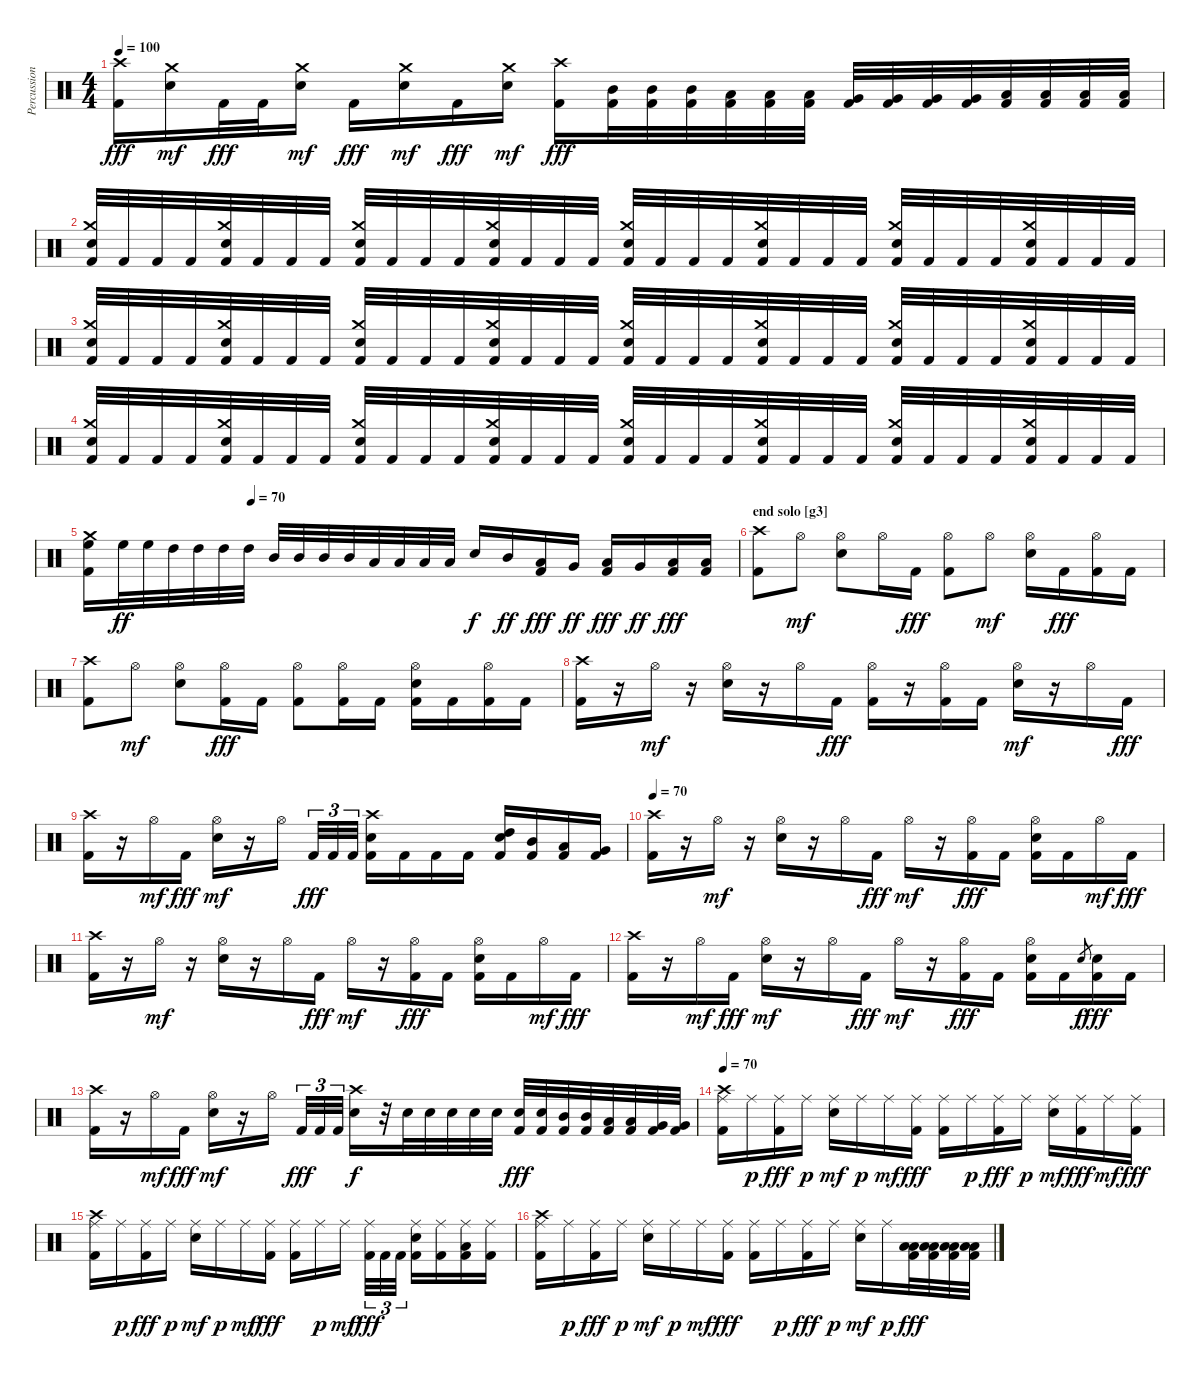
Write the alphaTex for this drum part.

\track ("Percussion" "Percussion") {instrument percussion}
\staff {score}
\articulation defaults
\ts (4 4)
\tempo 100
\clef neutral
\ks c
("Crash high (hit)" "Kick (hit) 2").16{dy fff} ("Crash medium (hit)" "Snare (hit) 2").16{dy mf} "Kick (hit) 2".32{dy fff} "Kick (hit) 2".32 ("Crash medium (hit)" "Snare (hit) 2").16{dy mf} "Kick (hit) 2".16{dy fff} ("Crash medium (hit)" "Snare (hit) 2").16{dy mf} "Kick (hit) 2".16{dy fff} ("Crash medium (hit)" "Snare (hit) 2").16{dy mf} ("Crash high (hit)" "Kick (hit) 2").16{dy fff} ("Mid Tom (hit)" "Kick (hit) 2").32 ("Mid Tom (hit)" "Kick (hit) 2").32 ("Mid Tom (hit)" "Kick (hit) 2").32 ("Low Tom (hit)" "Kick (hit) 2").32 ("Low Tom (hit)" "Kick (hit) 2").32 ("Low Tom (hit)" "Kick (hit) 2").32 ("Very Low Tom (hit)" "Kick (hit) 2").32 ("Very Low Tom (hit)" "Kick (hit) 2").32 ("Very Low Tom (hit)" "Kick (hit) 2").32 ("Very Low Tom (hit)" "Kick (hit) 2").32 ("Low Floor Tom (hit)" "Kick (hit) 2").32 ("Low Floor Tom (hit)" "Kick (hit) 2").32 ("Low Floor Tom (hit)" "Kick (hit) 2").32 ("Low Floor Tom (hit)" "Kick (hit) 2").32 |
("Crash medium (hit)" "Snare (hit) 2" "Kick (hit) 2").32 "Kick (hit) 2".32 "Kick (hit) 2".32 "Kick (hit) 2".32 ("Crash medium (hit)" "Snare (hit) 2" "Kick (hit) 2").32 "Kick (hit) 2".32 "Kick (hit) 2".32 "Kick (hit) 2".32 ("Crash medium (hit)" "Snare (hit) 2" "Kick (hit) 2").32 "Kick (hit) 2".32 "Kick (hit) 2".32 "Kick (hit) 2".32 ("Crash medium (hit)" "Snare (hit) 2" "Kick (hit) 2").32 "Kick (hit) 2".32 "Kick (hit) 2".32 "Kick (hit) 2".32 ("Crash medium (hit)" "Snare (hit) 2" "Kick (hit) 2").32 "Kick (hit) 2".32 "Kick (hit) 2".32 "Kick (hit) 2".32 ("Crash medium (hit)" "Snare (hit) 2" "Kick (hit) 2").32 "Kick (hit) 2".32 "Kick (hit) 2".32 "Kick (hit) 2".32 ("Crash medium (hit)" "Snare (hit) 2" "Kick (hit) 2").32 "Kick (hit) 2".32 "Kick (hit) 2".32 "Kick (hit) 2".32 ("Crash medium (hit)" "Snare (hit) 2" "Kick (hit) 2").32 "Kick (hit) 2".32 "Kick (hit) 2".32 "Kick (hit) 2".32 |
("Crash medium (hit)" "Snare (hit) 2" "Kick (hit) 2").32 "Kick (hit) 2".32 "Kick (hit) 2".32 "Kick (hit) 2".32 ("Crash medium (hit)" "Snare (hit) 2" "Kick (hit) 2").32 "Kick (hit) 2".32 "Kick (hit) 2".32 "Kick (hit) 2".32 ("Crash medium (hit)" "Snare (hit) 2" "Kick (hit) 2").32 "Kick (hit) 2".32 "Kick (hit) 2".32 "Kick (hit) 2".32 ("Crash medium (hit)" "Snare (hit) 2" "Kick (hit) 2").32 "Kick (hit) 2".32 "Kick (hit) 2".32 "Kick (hit) 2".32 ("Crash medium (hit)" "Snare (hit) 2" "Kick (hit) 2").32 "Kick (hit) 2".32 "Kick (hit) 2".32 "Kick (hit) 2".32 ("Crash medium (hit)" "Snare (hit) 2" "Kick (hit) 2").32 "Kick (hit) 2".32 "Kick (hit) 2".32 "Kick (hit) 2".32 ("Crash medium (hit)" "Snare (hit) 2" "Kick (hit) 2").32 "Kick (hit) 2".32 "Kick (hit) 2".32 "Kick (hit) 2".32 ("Crash medium (hit)" "Snare (hit) 2" "Kick (hit) 2").32 "Kick (hit) 2".32 "Kick (hit) 2".32 "Kick (hit) 2".32 |
("Crash medium (hit)" "Snare (hit) 2" "Kick (hit) 2").32 "Kick (hit) 2".32 "Kick (hit) 2".32 "Kick (hit) 2".32 ("Crash medium (hit)" "Snare (hit) 2" "Kick (hit) 2").32 "Kick (hit) 2".32 "Kick (hit) 2".32 "Kick (hit) 2".32 ("Crash medium (hit)" "Snare (hit) 2" "Kick (hit) 2").32 "Kick (hit) 2".32 "Kick (hit) 2".32 "Kick (hit) 2".32 ("Crash medium (hit)" "Snare (hit) 2" "Kick (hit) 2").32 "Kick (hit) 2".32 "Kick (hit) 2".32 "Kick (hit) 2".32 ("Crash medium (hit)" "Snare (hit) 2" "Kick (hit) 2").32 "Kick (hit) 2".32 "Kick (hit) 2".32 "Kick (hit) 2".32 ("Crash medium (hit)" "Snare (hit) 2" "Kick (hit) 2").32 "Kick (hit) 2".32 "Kick (hit) 2".32 "Kick (hit) 2".32 ("Crash medium (hit)" "Snare (hit) 2" "Kick (hit) 2").32 "Kick (hit) 2".32 "Kick (hit) 2".32 "Kick (hit) 2".32 ("Crash medium (hit)" "Snare (hit) 2" "Kick (hit) 2").32 "Kick (hit) 2".32 "Kick (hit) 2".32 "Kick (hit) 2".32 |
\tempo (70 0.25)
("Crash medium (hit)" "High Floor Tom (hit)" "Kick (hit) 2").16 "High Floor Tom (hit)".32{dy ff} "High Floor Tom (hit)".32 "High Tom (hit)".32 "High Tom (hit)".32 "High Tom (hit)".32 "High Tom (hit)".32 "Mid Tom (hit)".32 "Mid Tom (hit)".32 "Mid Tom (hit)".32 "Mid Tom (hit)".32 "Low Tom (hit)".32 "Low Tom (hit)".32 "Low Tom (hit)".32 "Low Tom (hit)".32 "Snare (hit) 2".16{dy f} "Mid Tom (hit)".16{dy ff} ("Low Tom (hit)" "Kick (hit) 2").16{dy fff} "Very Low Tom (hit)".16{dy ff} ("Low Tom (hit)" "Kick (hit) 2").16{dy fff} "Very Low Tom (hit)".16{dy ff} ("Low Floor Tom (hit)" "Kick (hit) 2").16{dy fff} ("Low Floor Tom (hit)" "Kick (hit) 2").16 |
\section ("" "end solo [g3]")
("Crash high (hit)" "Kick (hit) 2").8 "Hi-Hat (open)".8{dy mf} ("Hi-Hat (open)" "Snare (hit) 2").8 "Hi-Hat (open)".16 "Kick (hit) 2".16{dy fff} ("Hi-Hat (open)" "Kick (hit) 2").8 "Hi-Hat (open)".8{dy mf} ("Hi-Hat (open)" "Snare (hit) 2").16 "Kick (hit) 2".16{dy fff} ("Hi-Hat (open)" "Kick (hit) 2").16 "Kick (hit) 2".16 |
("Crash high (hit)" "Kick (hit) 2").8 "Hi-Hat (open)".8{dy mf} ("Hi-Hat (open)" "Snare (hit) 2").8 ("Hi-Hat (open)" "Kick (hit) 2").16{dy fff} "Kick (hit) 2".16 ("Hi-Hat (open)" "Kick (hit) 2").8 ("Hi-Hat (open)" "Kick (hit) 2").16 "Kick (hit) 2".16 ("Hi-Hat (open)" "Snare (hit) 2" "Kick (hit) 2").16 "Kick (hit) 2".16 ("Hi-Hat (open)" "Kick (hit) 2").16 "Kick (hit) 2".16 |
("Crash high (hit)" "Kick (hit) 2").16 r.16 "Hi-Hat (open)".16{dy mf} r.16 ("Hi-Hat (open)" "Snare (hit) 2").16 r.16 "Hi-Hat (open)".16 "Kick (hit) 2".16{dy fff} ("Hi-Hat (open)" "Kick (hit) 2").16 r.16 ("Hi-Hat (open)" "Kick (hit) 2").16 "Kick (hit) 2".16 ("Hi-Hat (open)" "Snare (hit) 2").16{dy mf} r.16 "Hi-Hat (open)".16 "Kick (hit) 2".16{dy fff} |
("Crash high (hit)" "Kick (hit) 2").16 r.16 "Hi-Hat (open)".16{dy mf} "Kick (hit) 2".16{dy fff} ("Hi-Hat (open)" "Snare (hit) 2").16{dy mf} r.16 "Hi-Hat (open)".16 "Kick (hit) 2".32{tu (3 2) dy fff} "Kick (hit) 2".32{tu (3 2)} "Kick (hit) 2".32{tu (3 2)} ("Crash high (hit)" "Snare (hit) 2" "Kick (hit) 2").16 "Kick (hit) 2".16 "Kick (hit) 2".16 "Kick (hit) 2".16 ("High Tom (hit)" "Snare (hit) 2" "Kick (hit) 2").16 ("Mid Tom (hit)" "Kick (hit) 2").16 ("Low Tom (hit)" "Kick (hit) 2").16 ("Very Low Tom (hit)" "Kick (hit) 2").16 |
\tempo 70
("Crash high (hit)" "Kick (hit) 2").16 r.16 "Hi-Hat (open)".16{dy mf} r.16 ("Hi-Hat (open)" "Snare (hit) 2").16 r.16 "Hi-Hat (open)".16 "Kick (hit) 2".16{dy fff} "Hi-Hat (open)".16{dy mf} r.16 ("Hi-Hat (open)" "Kick (hit) 2").16{dy fff} "Kick (hit) 2".16 ("Hi-Hat (open)" "Snare (hit) 2" "Kick (hit) 2").16 "Kick (hit) 2".16 "Hi-Hat (open)".16{dy mf} "Kick (hit) 2".16{dy fff} |
("Crash high (hit)" "Kick (hit) 2").16 r.16 "Hi-Hat (open)".16{dy mf} r.16 ("Hi-Hat (open)" "Snare (hit) 2").16 r.16 "Hi-Hat (open)".16 "Kick (hit) 2".16{dy fff} "Hi-Hat (open)".16{dy mf} r.16 ("Hi-Hat (open)" "Kick (hit) 2").16{dy fff} "Kick (hit) 2".16 ("Hi-Hat (open)" "Snare (hit) 2" "Kick (hit) 2").16 "Kick (hit) 2".16 "Hi-Hat (open)".16{dy mf} "Kick (hit) 2".16{dy fff} |
("Crash high (hit)" "Kick (hit) 2").16 r.16 "Hi-Hat (open)".16{dy mf} "Kick (hit) 2".16{dy fff} ("Hi-Hat (open)" "Snare (hit) 2").16{dy mf} r.16 "Hi-Hat (open)".16 "Kick (hit) 2".16{dy fff} "Hi-Hat (open)".16{dy mf} r.16 ("Hi-Hat (open)" "Kick (hit) 2").16{dy fff} "Kick (hit) 2".16 ("Hi-Hat (open)" "Snare (hit) 2" "Kick (hit) 2").16 "Kick (hit) 2".16 "Snare (hit) 2".8{gr dy f} ("Snare (hit) 2" "Kick (hit) 2").16{dy fff} "Kick (hit) 2".16 |
("Crash high (hit)" "Kick (hit) 2").16 r.16 "Hi-Hat (open)".16{dy mf} "Kick (hit) 2".16{dy fff} ("Hi-Hat (open)" "Snare (hit) 2").16{dy mf} r.16 "Hi-Hat (open)".16 "Kick (hit) 2".32{tu (3 2) dy fff} "Kick (hit) 2".32{tu (3 2)} "Kick (hit) 2".32{tu (3 2)} ("Crash high (hit)" "Snare (hit) 2").16{dy f} r.32 "Snare (hit) 2".32 "Snare (hit) 2".32 "Snare (hit) 2".32 "Snare (hit) 2".32 "Snare (hit) 2".32 ("Snare (hit) 2" "Kick (hit) 2").32{dy fff} ("Snare (hit) 2" "Kick (hit) 2").32 ("Mid Tom (hit)" "Kick (hit) 2").32 ("Mid Tom (hit)" "Kick (hit) 2").32 ("Low Tom (hit)" "Kick (hit) 2").32 ("Low Tom (hit)" "Kick (hit) 2").32 ("Very Low Tom (hit)" "Kick (hit) 2").32 ("Very Low Tom (hit)" "Kick (hit) 2").32 |
\section ("" "")
\tempo 70
("Crash high (hit)" "Ride (middle)" "Kick (hit) 2").16 "Ride (middle)".16{dy p} ("Ride (middle)" "Kick (hit) 2").16{dy fff} "Ride (middle)".16{dy p} ("Ride (middle)" "Snare (hit) 2").16{dy mf} "Ride (middle)".16{dy p} "Ride (middle)".16{dy mf} ("Ride (middle)" "Kick (hit) 2").16{dy fff} ("Ride (middle)" "Kick (hit) 2").16 "Ride (middle)".16{dy p} ("Ride (middle)" "Kick (hit) 2").16{dy fff} "Ride (middle)".16{dy p} ("Ride (middle)" "Snare (hit) 2").16{dy mf} ("Ride (middle)" "Kick (hit) 2").16{dy fff} "Ride (middle)".16{dy mf} ("Ride (middle)" "Kick (hit) 2").16{dy fff} |
("Crash high (hit)" "Ride (middle)" "Kick (hit) 2").16 "Ride (middle)".16{dy p} ("Ride (middle)" "Kick (hit) 2").16{dy fff} "Ride (middle)".16{dy p} ("Ride (middle)" "Snare (hit) 2").16{dy mf} "Ride (middle)".16{dy p} "Ride (middle)".16{dy mf} ("Ride (middle)" "Kick (hit) 2").16{dy fff} ("Ride (middle)" "Kick (hit) 2").16 "Ride (middle)".16{dy p} "Ride (middle)".16{dy mf} ("Ride (middle)" "Kick (hit) 2").32{tu (3 2) dy fff} "Kick (hit) 2".32{tu (3 2)} "Kick (hit) 2".32{tu (3 2)} ("Ride (middle)" "Snare (hit) 2" "Kick (hit) 2").16 ("Ride (middle)" "Kick (hit) 2").16 ("Ride (middle)" "Low Tom (hit)" "Kick (hit) 2").16 ("Ride (middle)" "Kick (hit) 2").16 |
("Crash high (hit)" "Ride (middle)" "Kick (hit) 2").16 "Ride (middle)".16{dy p} ("Ride (middle)" "Kick (hit) 2").16{dy fff} "Ride (middle)".16{dy p} ("Ride (middle)" "Snare (hit) 2").16{dy mf} "Ride (middle)".16{dy p} "Ride (middle)".16{dy mf} ("Ride (middle)" "Kick (hit) 2").16{dy fff} ("Ride (middle)" "Kick (hit) 2").16 "Ride (middle)".16{dy p} ("Ride (middle)" "Kick (hit) 2").16{dy fff} "Ride (middle)".16{dy p} ("Ride (middle)" "Snare (hit) 2").16{dy mf} "Ride (middle)".16{dy p} ("Low Tom (hit)" "Low Floor Tom (hit)" "Kick (hit) 2").32{dy fff} ("Low Tom (hit)" "Low Floor Tom (hit)" "Kick (hit) 2").32 ("Low Tom (hit)" "Low Floor Tom (hit)" "Kick (hit) 2").32 ("Low Tom (hit)" "Low Floor Tom (hit)" "Kick (hit) 2").32
